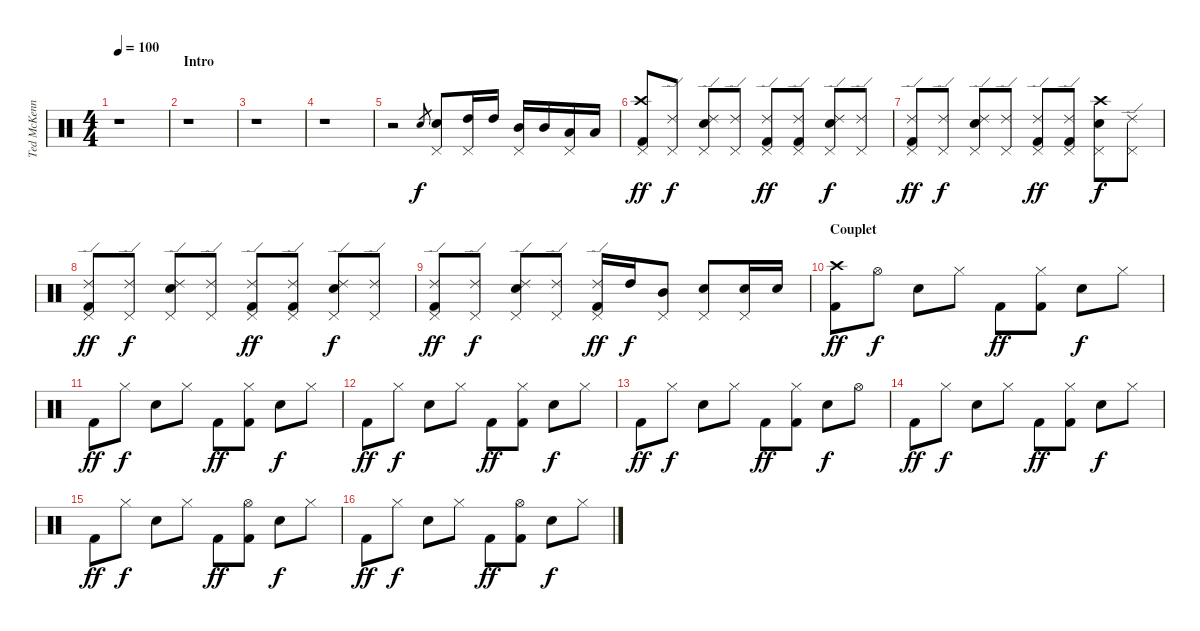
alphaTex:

\track ("Ted McKenna" "Ted McKenn") {instrument percussion}
\staff {score}
\articulation defaults
\ts (4 4)
\tempo 100
\clef neutral
\ks c
r.1{dy f} |
\section ("" "Intro")
r.1 |
r.1 |
r.1 |
r.2 "Snare (hit) 2".8{gr} ("Snare (hit) 2" "Pedal Hi-Hat (hit)").8 ("High Tom (hit)" "Pedal Hi-Hat (hit)").16 "High Tom (hit)".16 ("Mid Tom (hit)" "Pedal Hi-Hat (hit)").16 "Mid Tom (hit)".16 ("Low Tom (hit)" "Pedal Hi-Hat (hit)").16 "Low Tom (hit)".16 |
("Crash high (hit)" "Pedal Hi-Hat (hit)" "Kick (hit) 2").8{dy ff} ("Ride (edge) 2" "Pedal Hi-Hat (hit)").8{dy f} ("Ride (edge) 2" "Snare (hit) 2" "Pedal Hi-Hat (hit)").8 ("Ride (edge) 2" "Pedal Hi-Hat (hit)").8 ("Ride (edge) 2" "Pedal Hi-Hat (hit)" "Kick (hit) 2").8{dy ff} ("Ride (edge) 2" "Pedal Hi-Hat (hit)" "Kick (hit) 2").8 ("Ride (edge) 2" "Snare (hit) 2" "Pedal Hi-Hat (hit)").8{dy f} ("Ride (edge) 2" "Pedal Hi-Hat (hit)").8 |
("Ride (edge) 2" "Pedal Hi-Hat (hit)" "Kick (hit) 2").8{dy ff} ("Ride (edge) 2" "Pedal Hi-Hat (hit)").8{dy f} ("Ride (edge) 2" "Snare (hit) 2" "Pedal Hi-Hat (hit)").8 ("Ride (edge) 2" "Pedal Hi-Hat (hit)").8 ("Ride (edge) 2" "Pedal Hi-Hat (hit)" "Kick (hit) 2").8{dy ff} ("Ride (edge) 2" "Pedal Hi-Hat (hit)" "Kick (hit) 2").8 ("Crash high (hit)" "Snare (hit) 2" "Pedal Hi-Hat (hit)").8{dy f} ("Ride (edge) 2" "Pedal Hi-Hat (hit)").8 |
("Ride (edge) 2" "Pedal Hi-Hat (hit)" "Kick (hit) 2").8{dy ff} ("Ride (edge) 2" "Pedal Hi-Hat (hit)").8{dy f} ("Ride (edge) 2" "Snare (hit) 2" "Pedal Hi-Hat (hit)").8 ("Ride (edge) 2" "Pedal Hi-Hat (hit)").8 ("Ride (edge) 2" "Pedal Hi-Hat (hit)" "Kick (hit) 2").8{dy ff} ("Ride (edge) 2" "Pedal Hi-Hat (hit)" "Kick (hit) 2").8 ("Ride (edge) 2" "Snare (hit) 2" "Pedal Hi-Hat (hit)").8{dy f} ("Ride (edge) 2" "Pedal Hi-Hat (hit)").8 |
("Ride (edge) 2" "Pedal Hi-Hat (hit)" "Kick (hit) 2").8{dy ff} ("Ride (edge) 2" "Pedal Hi-Hat (hit)").8{dy f} ("Ride (edge) 2" "Snare (hit) 2" "Pedal Hi-Hat (hit)").8 ("Ride (edge) 2" "Pedal Hi-Hat (hit)").8 ("Ride (edge) 2" "Pedal Hi-Hat (hit)" "Kick (hit) 2").16{dy ff} "High Tom (hit)".16{dy f} ("Mid Tom (hit)" "Pedal Hi-Hat (hit)").8 ("Snare (hit) 2" "Pedal Hi-Hat (hit)").8 ("Snare (hit) 2" "Pedal Hi-Hat (hit)").16 "Snare (hit) 2".16 |
\section ("" "Couplet")
("Crash high (hit)" "Kick (hit) 2").8{dy ff} "Hi-Hat (open)".8{dy f} "Snare (hit) 2".8 "Hi-Hat (closed)".8 "Kick (hit) 2".8{dy ff} ("Hi-Hat (closed)" "Kick (hit) 2").8 "Snare (hit) 2".8{dy f} "Hi-Hat (closed)".8 |
"Kick (hit) 2".8{dy ff} "Hi-Hat (closed)".8{dy f} "Snare (hit) 2".8 "Hi-Hat (closed)".8 "Kick (hit) 2".8{dy ff} ("Hi-Hat (closed)" "Kick (hit) 2").8 "Snare (hit) 2".8{dy f} "Hi-Hat (closed)".8 |
"Kick (hit) 2".8{dy ff} "Hi-Hat (closed)".8{dy f} "Snare (hit) 2".8 "Hi-Hat (closed)".8 "Kick (hit) 2".8{dy ff} ("Hi-Hat (closed)" "Kick (hit) 2").8 "Snare (hit) 2".8{dy f} "Hi-Hat (closed)".8 |
"Kick (hit) 2".8{dy ff} "Hi-Hat (closed)".8{dy f} "Snare (hit) 2".8 "Hi-Hat (closed)".8 "Kick (hit) 2".8{dy ff} ("Hi-Hat (closed)" "Kick (hit) 2").8 "Snare (hit) 2".8{dy f} "Hi-Hat (open)".8 |
"Kick (hit) 2".8{dy ff} "Hi-Hat (closed)".8{dy f} "Snare (hit) 2".8 "Hi-Hat (closed)".8 "Kick (hit) 2".8{dy ff} ("Hi-Hat (closed)" "Kick (hit) 2").8 "Snare (hit) 2".8{dy f} "Hi-Hat (closed)".8 |
"Kick (hit) 2".8{dy ff} "Hi-Hat (closed)".8{dy f} "Snare (hit) 2".8 "Hi-Hat (closed)".8 "Kick (hit) 2".8{dy ff} ("Hi-Hat (open)" "Kick (hit) 2").8 "Snare (hit) 2".8{dy f} "Hi-Hat (closed)".8 |
"Kick (hit) 2".8{dy ff} "Hi-Hat (closed)".8{dy f} "Snare (hit) 2".8 "Hi-Hat (closed)".8 "Kick (hit) 2".8{dy ff} ("Hi-Hat (open)" "Kick (hit) 2").8 "Snare (hit) 2".8{dy f} "Hi-Hat (closed)".8
